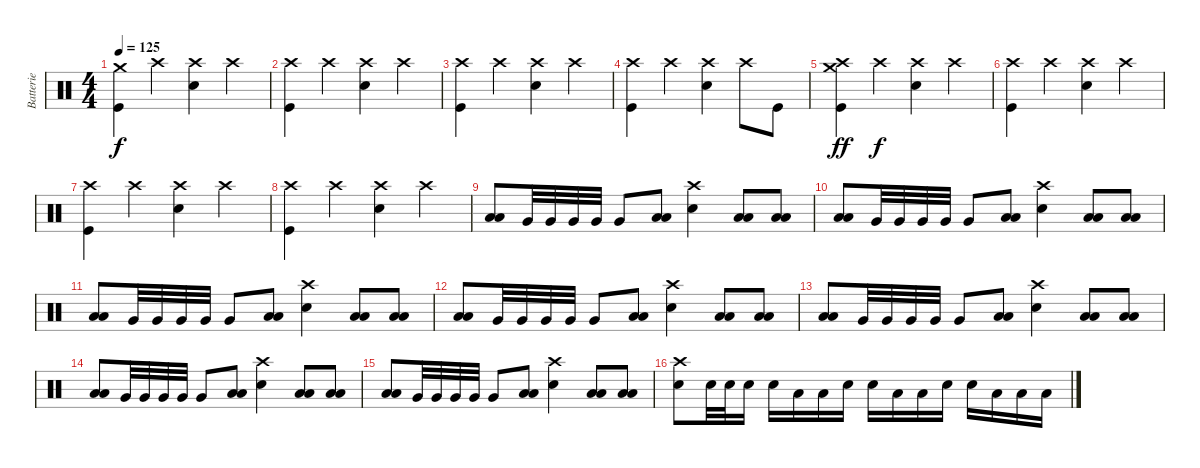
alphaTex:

\track ("Batterie" "Batterie") {instrument percussion}
\staff {score}
\articulation defaults
\ts (4 4)
\tempo 125
\clef neutral
\ks c
("Crash medium (hit)" "Kick (hit)").4{dy f} "Crash high (hit)".4 ("Crash high (hit)" "Electric Snare (hit)").4 "Crash high (hit)".4 |
("Crash high (hit)" "Kick (hit)").4 "Crash high (hit)".4 ("Crash high (hit)" "Electric Snare (hit)").4 "Crash high (hit)".4 |
("Crash high (hit)" "Kick (hit)").4 "Crash high (hit)".4 ("Crash high (hit)" "Electric Snare (hit)").4 "Crash high (hit)".4 |
("Crash high (hit)" "Kick (hit)").4 "Crash high (hit)".4 ("Crash high (hit)" "Electric Snare (hit)").4 "Crash high (hit)".8 "Kick (hit)".8 |
("Crash medium (hit)" "Crash high (hit)" "Kick (hit)").4{dy ff} "Crash high (hit)".4{dy f} ("Crash high (hit)" "Electric Snare (hit)").4 "Crash high (hit)".4 |
("Crash high (hit)" "Kick (hit)").4 "Crash high (hit)".4 ("Crash high (hit)" "Electric Snare (hit)").4 "Crash high (hit)".4 |
("Crash high (hit)" "Kick (hit)").4 "Crash high (hit)".4 ("Crash high (hit)" "Electric Snare (hit)").4 "Crash high (hit)".4 |
("Crash high (hit)" "Kick (hit)").4 "Crash high (hit)".4 ("Crash high (hit)" "Electric Snare (hit)").4 "Crash high (hit)".4 |
("Low Tom (hit)" "Low Floor Tom (hit)").8 "Very Low Tom (hit)".32 "Very Low Tom (hit)".32 "Very Low Tom (hit)".32 "Very Low Tom (hit)".32 "Very Low Tom (hit)".8 ("Low Tom (hit)" "Low Floor Tom (hit)").8 ("Crash high (hit)" "Electric Snare (hit)").4 ("Low Tom (hit)" "Low Floor Tom (hit)").8 ("Low Tom (hit)" "Low Floor Tom (hit)").8 |
("Low Tom (hit)" "Low Floor Tom (hit)").8 "Very Low Tom (hit)".32 "Very Low Tom (hit)".32 "Very Low Tom (hit)".32 "Very Low Tom (hit)".32 "Very Low Tom (hit)".8 ("Low Tom (hit)" "Low Floor Tom (hit)").8 ("Crash high (hit)" "Electric Snare (hit)").4 ("Low Tom (hit)" "Low Floor Tom (hit)").8 ("Low Tom (hit)" "Low Floor Tom (hit)").8 |
("Low Tom (hit)" "Low Floor Tom (hit)").8 "Very Low Tom (hit)".32 "Very Low Tom (hit)".32 "Very Low Tom (hit)".32 "Very Low Tom (hit)".32 "Very Low Tom (hit)".8 ("Low Tom (hit)" "Low Floor Tom (hit)").8 ("Crash high (hit)" "Electric Snare (hit)").4 ("Low Tom (hit)" "Low Floor Tom (hit)").8 ("Low Tom (hit)" "Low Floor Tom (hit)").8 |
("Low Tom (hit)" "Low Floor Tom (hit)").8 "Very Low Tom (hit)".32 "Very Low Tom (hit)".32 "Very Low Tom (hit)".32 "Very Low Tom (hit)".32 "Very Low Tom (hit)".8 ("Low Tom (hit)" "Low Floor Tom (hit)").8 ("Crash high (hit)" "Electric Snare (hit)").4 ("Low Tom (hit)" "Low Floor Tom (hit)").8 ("Low Tom (hit)" "Low Floor Tom (hit)").8 |
("Low Tom (hit)" "Low Floor Tom (hit)").8 "Very Low Tom (hit)".32 "Very Low Tom (hit)".32 "Very Low Tom (hit)".32 "Very Low Tom (hit)".32 "Very Low Tom (hit)".8 ("Low Tom (hit)" "Low Floor Tom (hit)").8 ("Crash high (hit)" "Electric Snare (hit)").4 ("Low Tom (hit)" "Low Floor Tom (hit)").8 ("Low Tom (hit)" "Low Floor Tom (hit)").8 |
("Low Tom (hit)" "Low Floor Tom (hit)").8 "Very Low Tom (hit)".32 "Very Low Tom (hit)".32 "Very Low Tom (hit)".32 "Very Low Tom (hit)".32 "Very Low Tom (hit)".8 ("Low Tom (hit)" "Low Floor Tom (hit)").8 ("Crash high (hit)" "Electric Snare (hit)").4 ("Low Tom (hit)" "Low Floor Tom (hit)").8 ("Low Tom (hit)" "Low Floor Tom (hit)").8 |
("Low Tom (hit)" "Low Floor Tom (hit)").8 "Very Low Tom (hit)".32 "Very Low Tom (hit)".32 "Very Low Tom (hit)".32 "Very Low Tom (hit)".32 "Very Low Tom (hit)".8 ("Low Tom (hit)" "Low Floor Tom (hit)").8 ("Crash high (hit)" "Electric Snare (hit)").4 ("Low Tom (hit)" "Low Floor Tom (hit)").8 ("Low Tom (hit)" "Low Floor Tom (hit)").8 |
("Crash high (hit)" "Electric Snare (hit)").8 "Electric Snare (hit)".32 "Electric Snare (hit)".32 "Electric Snare (hit)".16 "Electric Snare (hit)".16 "Low Tom (hit)".16 "Low Tom (hit)".16 "Electric Snare (hit)".16 "Electric Snare (hit)".16 "Low Tom (hit)".16 "Low Tom (hit)".16 "Electric Snare (hit)".16 "Electric Snare (hit)".16 "Low Tom (hit)".16 "Low Tom (hit)".16 "Low Tom (hit)".16
